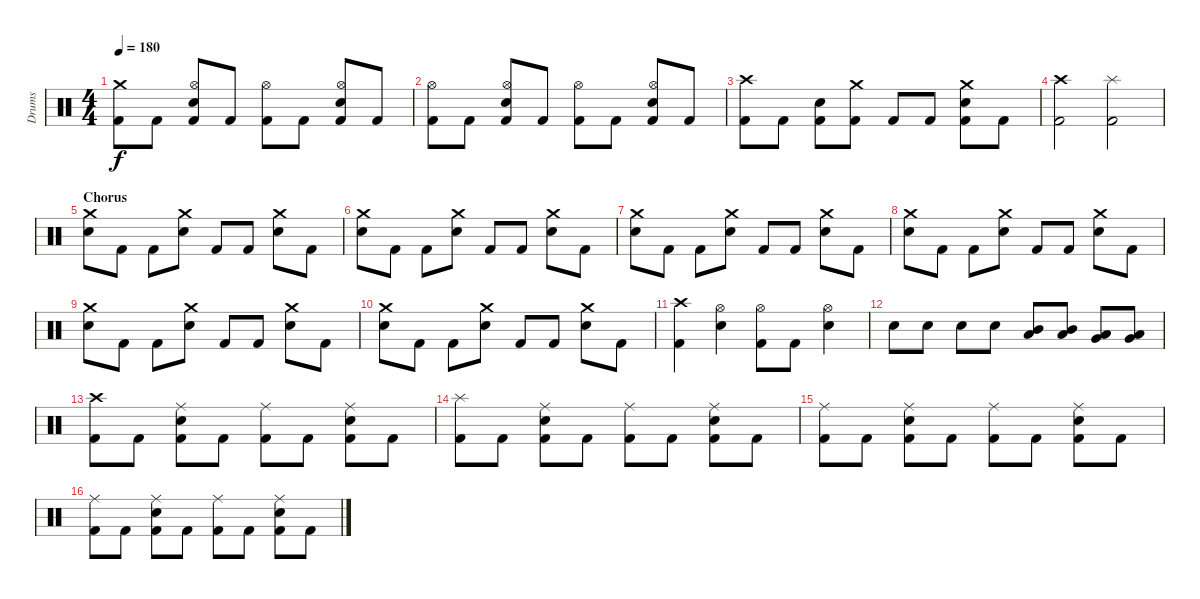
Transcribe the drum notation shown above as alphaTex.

\track ("Drums" "Drums") {instrument percussion}
\staff {score}
\articulation defaults
\ts (4 4)
\tempo 180
\clef neutral
\ks c
("Crash medium (hit)" "Kick (hit) 2").8{dy f} "Kick (hit) 2".8 ("Hi-Hat (open)" "Electric Snare (hit)" "Kick (hit) 2").8 "Kick (hit) 2".8 ("Hi-Hat (open)" "Kick (hit) 2").8 "Kick (hit) 2".8 ("Hi-Hat (open)" "Electric Snare (hit)" "Kick (hit) 2").8 "Kick (hit) 2".8 |
("Hi-Hat (open)" "Kick (hit) 2").8 "Kick (hit) 2".8 ("Hi-Hat (open)" "Electric Snare (hit)" "Kick (hit) 2").8 "Kick (hit) 2".8 ("Hi-Hat (open)" "Kick (hit) 2").8 "Kick (hit) 2".8 ("Hi-Hat (open)" "Electric Snare (hit)" "Kick (hit) 2").8 "Kick (hit) 2".8 |
("Crash high (hit)" "Kick (hit) 2").8 "Kick (hit) 2".8 ("Electric Snare (hit)" "Kick (hit) 2").8 ("Crash medium (hit)" "Kick (hit) 2").8 "Kick (hit) 2".8 "Kick (hit) 2".8 ("Crash medium (hit)" "Electric Snare (hit)" "Kick (hit) 2").8 "Kick (hit) 2".8 |
("Crash high (hit)" "Kick (hit) 2").2 ("Splash (hit)" "Kick (hit) 2").2 |
\section ("" "Chorus")
("Crash medium (hit)" "Electric Snare (hit)").8 "Kick (hit) 2".8 "Kick (hit) 2".8 ("Crash medium (hit)" "Electric Snare (hit)").8 "Kick (hit) 2".8 "Kick (hit) 2".8 ("Crash medium (hit)" "Electric Snare (hit)").8 "Kick (hit) 2".8 |
("Crash medium (hit)" "Electric Snare (hit)").8 "Kick (hit) 2".8 "Kick (hit) 2".8 ("Crash medium (hit)" "Electric Snare (hit)").8 "Kick (hit) 2".8 "Kick (hit) 2".8 ("Crash medium (hit)" "Electric Snare (hit)").8 "Kick (hit) 2".8 |
("Crash medium (hit)" "Electric Snare (hit)").8 "Kick (hit) 2".8 "Kick (hit) 2".8 ("Crash medium (hit)" "Electric Snare (hit)").8 "Kick (hit) 2".8 "Kick (hit) 2".8 ("Crash medium (hit)" "Electric Snare (hit)").8 "Kick (hit) 2".8 |
("Crash medium (hit)" "Electric Snare (hit)").8 "Kick (hit) 2".8 "Kick (hit) 2".8 ("Crash medium (hit)" "Electric Snare (hit)").8 "Kick (hit) 2".8 "Kick (hit) 2".8 ("Crash medium (hit)" "Electric Snare (hit)").8 "Kick (hit) 2".8 |
("Crash medium (hit)" "Electric Snare (hit)").8 "Kick (hit) 2".8 "Kick (hit) 2".8 ("Crash medium (hit)" "Electric Snare (hit)").8 "Kick (hit) 2".8 "Kick (hit) 2".8 ("Crash medium (hit)" "Electric Snare (hit)").8 "Kick (hit) 2".8 |
("Crash medium (hit)" "Electric Snare (hit)").8 "Kick (hit) 2".8 "Kick (hit) 2".8 ("Crash medium (hit)" "Electric Snare (hit)").8 "Kick (hit) 2".8 "Kick (hit) 2".8 ("Crash medium (hit)" "Electric Snare (hit)").8 "Kick (hit) 2".8 |
("Crash high (hit)" "Kick (hit) 2").4 ("Hi-Hat (open)" "Electric Snare (hit)").4 ("Hi-Hat (open)" "Kick (hit) 2").8 "Kick (hit) 2".8 ("Hi-Hat (open)" "Electric Snare (hit)").4 |
"Electric Snare (hit)".8 "Electric Snare (hit)".8 "Electric Snare (hit)".8 "Electric Snare (hit)".8 ("Mid Tom (hit)" "Low Tom (hit)").8 ("Mid Tom (hit)" "Low Tom (hit)").8 ("Low Tom (hit)" "Very Low Tom (hit)").8 ("Low Tom (hit)" "Very Low Tom (hit)").8 |
("Crash high (hit)" "Kick (hit) 2").8 "Kick (hit) 2".8 ("Ride (middle)" "Electric Snare (hit)" "Kick (hit) 2").8 "Kick (hit) 2".8 ("Ride (middle)" "Kick (hit) 2").8 "Kick (hit) 2".8 ("Ride (middle)" "Electric Snare (hit)" "Kick (hit) 2").8 "Kick (hit) 2".8 |
("Splash (hit)" "Kick (hit) 2").8 "Kick (hit) 2".8 ("Ride (middle)" "Electric Snare (hit)" "Kick (hit) 2").8 "Kick (hit) 2".8 ("Ride (middle)" "Kick (hit) 2").8 "Kick (hit) 2".8 ("Ride (middle)" "Electric Snare (hit)" "Kick (hit) 2").8 "Kick (hit) 2".8 |
("Ride (middle)" "Kick (hit) 2").8 "Kick (hit) 2".8 ("Ride (middle)" "Electric Snare (hit)" "Kick (hit) 2").8 "Kick (hit) 2".8 ("Ride (middle)" "Kick (hit) 2").8 "Kick (hit) 2".8 ("Ride (middle)" "Electric Snare (hit)" "Kick (hit) 2").8 "Kick (hit) 2".8 |
("Ride (middle)" "Kick (hit) 2").8 "Kick (hit) 2".8 ("Ride (middle)" "Electric Snare (hit)" "Kick (hit) 2").8 "Kick (hit) 2".8 ("Ride (middle)" "Kick (hit) 2").8 "Kick (hit) 2".8 ("Ride (middle)" "Electric Snare (hit)" "Kick (hit) 2").8 "Kick (hit) 2".8
